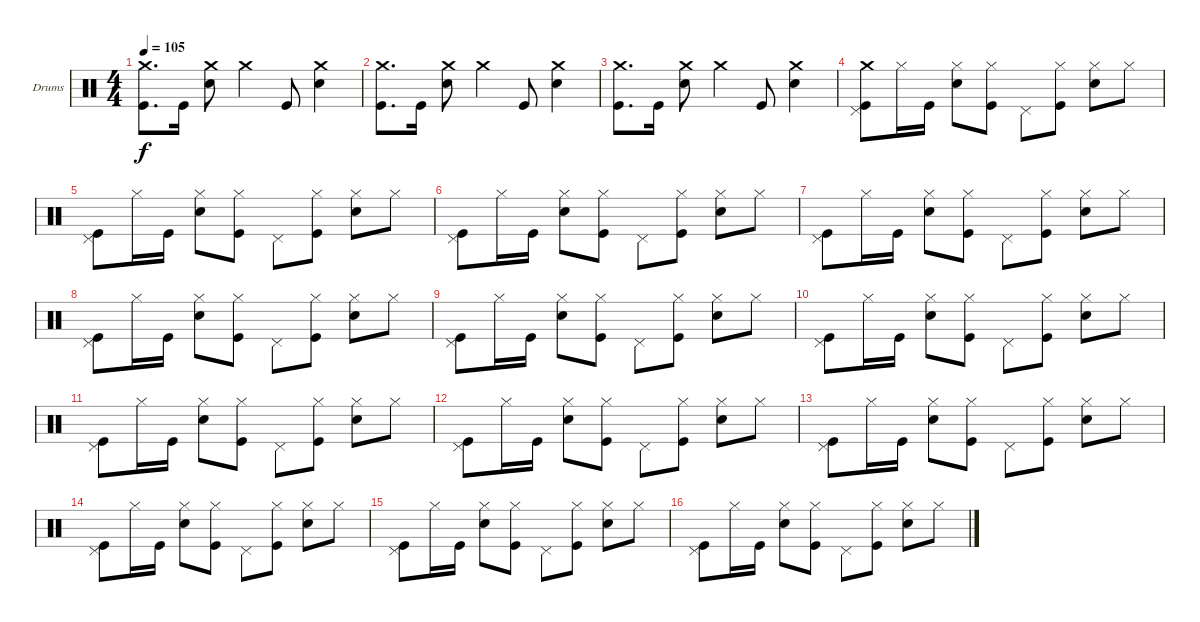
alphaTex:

\defaultSystemsLayout 4
\bracketExtendMode nobrackets
\firstSystemTrackNameOrientation horizontal
\otherSystemsTrackNameOrientation horizontal
\track ("Dave Krusen" "Drums") {instrument percussion}
\staff {score}
\articulation defaults
\ts (4 4)
\tempo 105
\clef neutral
\ks c
("Crash medium (hit)" "Kick (hit)").8{d dy f} "Kick (hit)".16 ("Crash medium (hit)" "Snare (hit) 2").8 "Crash medium (hit)".4 "Kick (hit)".8 ("Crash medium (hit)" "Snare (hit) 2").4 |
("Crash medium (hit)" "Kick (hit)").8{d} "Kick (hit)".16 ("Crash medium (hit)" "Snare (hit) 2").8 "Crash medium (hit)".4 "Kick (hit)".8 ("Crash medium (hit)" "Snare (hit) 2").4 |
("Crash medium (hit)" "Kick (hit)").8{d} "Kick (hit)".16 ("Crash medium (hit)" "Snare (hit) 2").8 "Crash medium (hit)".4 "Kick (hit)".8 ("Crash medium (hit)" "Snare (hit) 2").4 |
("Crash medium (hit)" "Kick (hit)" "Pedal Hi-Hat (hit)").8 "Hi-Hat (closed)".16 "Kick (hit)".16 ("Snare (hit) 2" "Hi-Hat (closed)").8 ("Kick (hit)" "Hi-Hat (closed)").8 "Pedal Hi-Hat (hit)".8 ("Kick (hit)" "Hi-Hat (closed)").8 ("Snare (hit) 2" "Hi-Hat (closed)").8 "Hi-Hat (closed)".8 |
("Kick (hit)" "Pedal Hi-Hat (hit)").8 "Hi-Hat (closed)".16 "Kick (hit)".16 ("Snare (hit) 2" "Hi-Hat (closed)").8 ("Kick (hit)" "Hi-Hat (closed)").8 "Pedal Hi-Hat (hit)".8 ("Kick (hit)" "Hi-Hat (closed)").8 ("Snare (hit) 2" "Hi-Hat (closed)").8 "Hi-Hat (closed)".8 |
("Kick (hit)" "Pedal Hi-Hat (hit)").8 "Hi-Hat (closed)".16 "Kick (hit)".16 ("Snare (hit) 2" "Hi-Hat (closed)").8 ("Kick (hit)" "Hi-Hat (closed)").8 "Pedal Hi-Hat (hit)".8 ("Kick (hit)" "Hi-Hat (closed)").8 ("Snare (hit) 2" "Hi-Hat (closed)").8 "Hi-Hat (closed)".8 |
("Kick (hit)" "Pedal Hi-Hat (hit)").8 "Hi-Hat (closed)".16 "Kick (hit)".16 ("Snare (hit) 2" "Hi-Hat (closed)").8 ("Kick (hit)" "Hi-Hat (closed)").8 "Pedal Hi-Hat (hit)".8 ("Kick (hit)" "Hi-Hat (closed)").8 ("Snare (hit) 2" "Hi-Hat (closed)").8 "Hi-Hat (closed)".8 |
("Kick (hit)" "Pedal Hi-Hat (hit)").8 "Hi-Hat (closed)".16 "Kick (hit)".16 ("Snare (hit) 2" "Hi-Hat (closed)").8 ("Kick (hit)" "Hi-Hat (closed)").8 "Pedal Hi-Hat (hit)".8 ("Kick (hit)" "Hi-Hat (closed)").8 ("Snare (hit) 2" "Hi-Hat (closed)").8 "Hi-Hat (closed)".8 |
("Kick (hit)" "Pedal Hi-Hat (hit)").8 "Hi-Hat (closed)".16 "Kick (hit)".16 ("Snare (hit) 2" "Hi-Hat (closed)").8 ("Kick (hit)" "Hi-Hat (closed)").8 "Pedal Hi-Hat (hit)".8 ("Kick (hit)" "Hi-Hat (closed)").8 ("Snare (hit) 2" "Hi-Hat (closed)").8 "Hi-Hat (closed)".8 |
("Kick (hit)" "Pedal Hi-Hat (hit)").8 "Hi-Hat (closed)".16 "Kick (hit)".16 ("Snare (hit) 2" "Hi-Hat (closed)").8 ("Kick (hit)" "Hi-Hat (closed)").8 "Pedal Hi-Hat (hit)".8 ("Kick (hit)" "Hi-Hat (closed)").8 ("Snare (hit) 2" "Hi-Hat (closed)").8 "Hi-Hat (closed)".8 |
("Kick (hit)" "Pedal Hi-Hat (hit)").8 "Hi-Hat (closed)".16 "Kick (hit)".16 ("Snare (hit) 2" "Hi-Hat (closed)").8 ("Kick (hit)" "Hi-Hat (closed)").8 "Pedal Hi-Hat (hit)".8 ("Kick (hit)" "Hi-Hat (closed)").8 ("Snare (hit) 2" "Hi-Hat (closed)").8 "Hi-Hat (closed)".8 |
("Kick (hit)" "Pedal Hi-Hat (hit)").8 "Hi-Hat (closed)".16 "Kick (hit)".16 ("Snare (hit) 2" "Hi-Hat (closed)").8 ("Kick (hit)" "Hi-Hat (closed)").8 "Pedal Hi-Hat (hit)".8 ("Kick (hit)" "Hi-Hat (closed)").8 ("Snare (hit) 2" "Hi-Hat (closed)").8 "Hi-Hat (closed)".8 |
("Kick (hit)" "Pedal Hi-Hat (hit)").8 "Hi-Hat (closed)".16 "Kick (hit)".16 ("Snare (hit) 2" "Hi-Hat (closed)").8 ("Kick (hit)" "Hi-Hat (closed)").8 "Pedal Hi-Hat (hit)".8 ("Kick (hit)" "Hi-Hat (closed)").8 ("Snare (hit) 2" "Hi-Hat (closed)").8 "Hi-Hat (closed)".8 |
("Kick (hit)" "Pedal Hi-Hat (hit)").8 "Hi-Hat (closed)".16 "Kick (hit)".16 ("Snare (hit) 2" "Hi-Hat (closed)").8 ("Kick (hit)" "Hi-Hat (closed)").8 "Pedal Hi-Hat (hit)".8 ("Kick (hit)" "Hi-Hat (closed)").8 ("Snare (hit) 2" "Hi-Hat (closed)").8 "Hi-Hat (closed)".8 |
("Kick (hit)" "Pedal Hi-Hat (hit)").8 "Hi-Hat (closed)".16 "Kick (hit)".16 ("Snare (hit) 2" "Hi-Hat (closed)").8 ("Kick (hit)" "Hi-Hat (closed)").8 "Pedal Hi-Hat (hit)".8 ("Kick (hit)" "Hi-Hat (closed)").8 ("Snare (hit) 2" "Hi-Hat (closed)").8 "Hi-Hat (closed)".8 |
("Kick (hit)" "Pedal Hi-Hat (hit)").8 "Hi-Hat (closed)".16 "Kick (hit)".16 ("Snare (hit) 2" "Hi-Hat (closed)").8 ("Kick (hit)" "Hi-Hat (closed)").8 "Pedal Hi-Hat (hit)".8 ("Kick (hit)" "Hi-Hat (closed)").8 ("Snare (hit) 2" "Hi-Hat (closed)").8 "Hi-Hat (closed)".8
